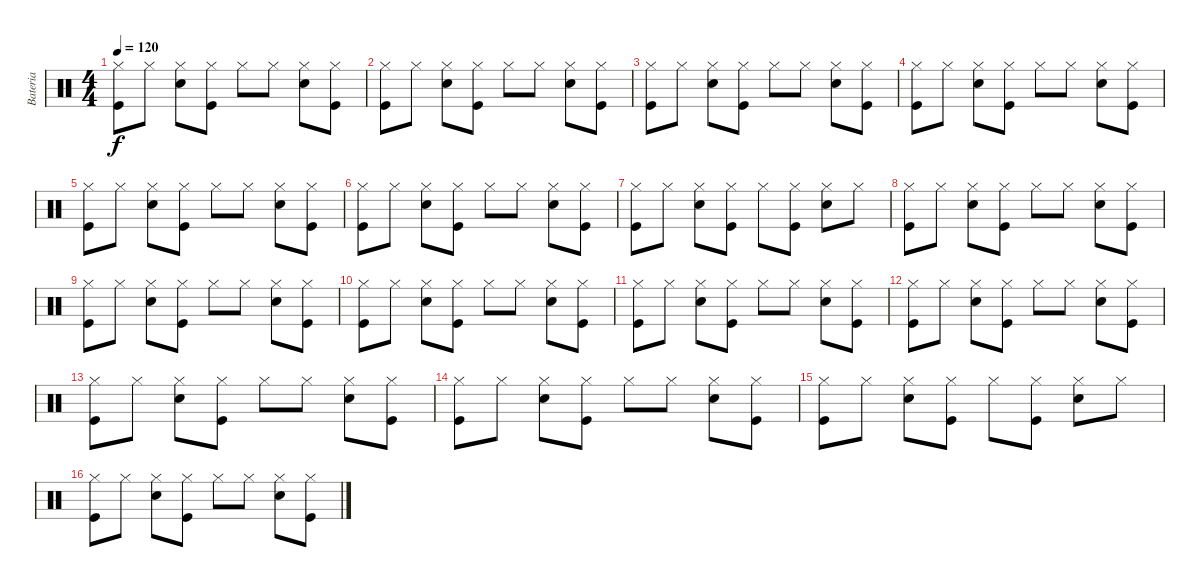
\track ("Bateria" "Bateria") {instrument percussion}
\staff {score}
\articulation defaults
\ts (4 4)
\tempo 120
\clef neutral
\ks c
("Hi-Hat (closed)" "Kick (hit)").8{dy f} "Hi-Hat (closed)".8 ("Hi-Hat (closed)" "Electric Snare (hit)").8 ("Hi-Hat (closed)" "Kick (hit)").8 "Hi-Hat (closed)".8 "Hi-Hat (closed)".8 ("Hi-Hat (closed)" "Electric Snare (hit)").8 ("Hi-Hat (closed)" "Kick (hit)").8 |
("Hi-Hat (closed)" "Kick (hit)").8 "Hi-Hat (closed)".8 ("Hi-Hat (closed)" "Electric Snare (hit)").8 ("Hi-Hat (closed)" "Kick (hit)").8 "Hi-Hat (closed)".8 "Hi-Hat (closed)".8 ("Hi-Hat (closed)" "Electric Snare (hit)").8 ("Hi-Hat (closed)" "Kick (hit)").8 |
("Hi-Hat (closed)" "Kick (hit)").8 "Hi-Hat (closed)".8 ("Hi-Hat (closed)" "Electric Snare (hit)").8 ("Hi-Hat (closed)" "Kick (hit)").8 "Hi-Hat (closed)".8 "Hi-Hat (closed)".8 ("Hi-Hat (closed)" "Electric Snare (hit)").8 ("Hi-Hat (closed)" "Kick (hit)").8 |
("Hi-Hat (closed)" "Kick (hit)").8 "Hi-Hat (closed)".8 ("Hi-Hat (closed)" "Electric Snare (hit)").8 ("Hi-Hat (closed)" "Kick (hit)").8 "Hi-Hat (closed)".8 "Hi-Hat (closed)".8 ("Hi-Hat (closed)" "Electric Snare (hit)").8 ("Hi-Hat (closed)" "Kick (hit)").8 |
("Hi-Hat (closed)" "Kick (hit)").8 "Hi-Hat (closed)".8 ("Hi-Hat (closed)" "Electric Snare (hit)").8 ("Hi-Hat (closed)" "Kick (hit)").8 "Hi-Hat (closed)".8 "Hi-Hat (closed)".8 ("Hi-Hat (closed)" "Electric Snare (hit)").8 ("Hi-Hat (closed)" "Kick (hit)").8 |
("Hi-Hat (closed)" "Kick (hit)").8 "Hi-Hat (closed)".8 ("Hi-Hat (closed)" "Electric Snare (hit)").8 ("Hi-Hat (closed)" "Kick (hit)").8 "Hi-Hat (closed)".8 "Hi-Hat (closed)".8 ("Hi-Hat (closed)" "Electric Snare (hit)").8 ("Hi-Hat (closed)" "Kick (hit)").8 |
("Hi-Hat (closed)" "Kick (hit)").8 "Hi-Hat (closed)".8 ("Hi-Hat (closed)" "Electric Snare (hit)").8 ("Hi-Hat (closed)" "Kick (hit)").8 "Hi-Hat (closed)".8 ("Hi-Hat (closed)" "Kick (hit)").8 ("Hi-Hat (closed)" "Electric Snare (hit)").8 "Hi-Hat (closed)".8 |
("Hi-Hat (closed)" "Kick (hit)").8 "Hi-Hat (closed)".8 ("Hi-Hat (closed)" "Electric Snare (hit)").8 ("Hi-Hat (closed)" "Kick (hit)").8 "Hi-Hat (closed)".8 "Hi-Hat (closed)".8 ("Hi-Hat (closed)" "Electric Snare (hit)").8 ("Hi-Hat (closed)" "Kick (hit)").8 |
("Hi-Hat (closed)" "Kick (hit)").8 "Hi-Hat (closed)".8 ("Hi-Hat (closed)" "Electric Snare (hit)").8 ("Hi-Hat (closed)" "Kick (hit)").8 "Hi-Hat (closed)".8 "Hi-Hat (closed)".8 ("Hi-Hat (closed)" "Electric Snare (hit)").8 ("Hi-Hat (closed)" "Kick (hit)").8 |
("Hi-Hat (closed)" "Kick (hit)").8 "Hi-Hat (closed)".8 ("Hi-Hat (closed)" "Electric Snare (hit)").8 ("Hi-Hat (closed)" "Kick (hit)").8 "Hi-Hat (closed)".8 "Hi-Hat (closed)".8 ("Hi-Hat (closed)" "Electric Snare (hit)").8 ("Hi-Hat (closed)" "Kick (hit)").8 |
("Hi-Hat (closed)" "Kick (hit)").8 "Hi-Hat (closed)".8 ("Hi-Hat (closed)" "Electric Snare (hit)").8 ("Hi-Hat (closed)" "Kick (hit)").8 "Hi-Hat (closed)".8 "Hi-Hat (closed)".8 ("Hi-Hat (closed)" "Electric Snare (hit)").8 ("Hi-Hat (closed)" "Kick (hit)").8 |
("Hi-Hat (closed)" "Kick (hit)").8 "Hi-Hat (closed)".8 ("Hi-Hat (closed)" "Electric Snare (hit)").8 ("Hi-Hat (closed)" "Kick (hit)").8 "Hi-Hat (closed)".8 "Hi-Hat (closed)".8 ("Hi-Hat (closed)" "Electric Snare (hit)").8 ("Hi-Hat (closed)" "Kick (hit)").8 |
("Hi-Hat (closed)" "Kick (hit)").8 "Hi-Hat (closed)".8 ("Hi-Hat (closed)" "Electric Snare (hit)").8 ("Hi-Hat (closed)" "Kick (hit)").8 "Hi-Hat (closed)".8 "Hi-Hat (closed)".8 ("Hi-Hat (closed)" "Electric Snare (hit)").8 ("Hi-Hat (closed)" "Kick (hit)").8 |
("Hi-Hat (closed)" "Kick (hit)").8 "Hi-Hat (closed)".8 ("Hi-Hat (closed)" "Electric Snare (hit)").8 ("Hi-Hat (closed)" "Kick (hit)").8 "Hi-Hat (closed)".8 "Hi-Hat (closed)".8 ("Hi-Hat (closed)" "Electric Snare (hit)").8 ("Hi-Hat (closed)" "Kick (hit)").8 |
("Hi-Hat (closed)" "Kick (hit)").8 "Hi-Hat (closed)".8 ("Hi-Hat (closed)" "Electric Snare (hit)").8 ("Hi-Hat (closed)" "Kick (hit)").8 "Hi-Hat (closed)".8 ("Hi-Hat (closed)" "Kick (hit)").8 ("Hi-Hat (closed)" "Electric Snare (hit)").8 "Hi-Hat (closed)".8 |
("Hi-Hat (closed)" "Kick (hit)").8 "Hi-Hat (closed)".8 ("Hi-Hat (closed)" "Electric Snare (hit)").8 ("Hi-Hat (closed)" "Kick (hit)").8 "Hi-Hat (closed)".8 "Hi-Hat (closed)".8 ("Hi-Hat (closed)" "Electric Snare (hit)").8 ("Hi-Hat (closed)" "Kick (hit)").8
